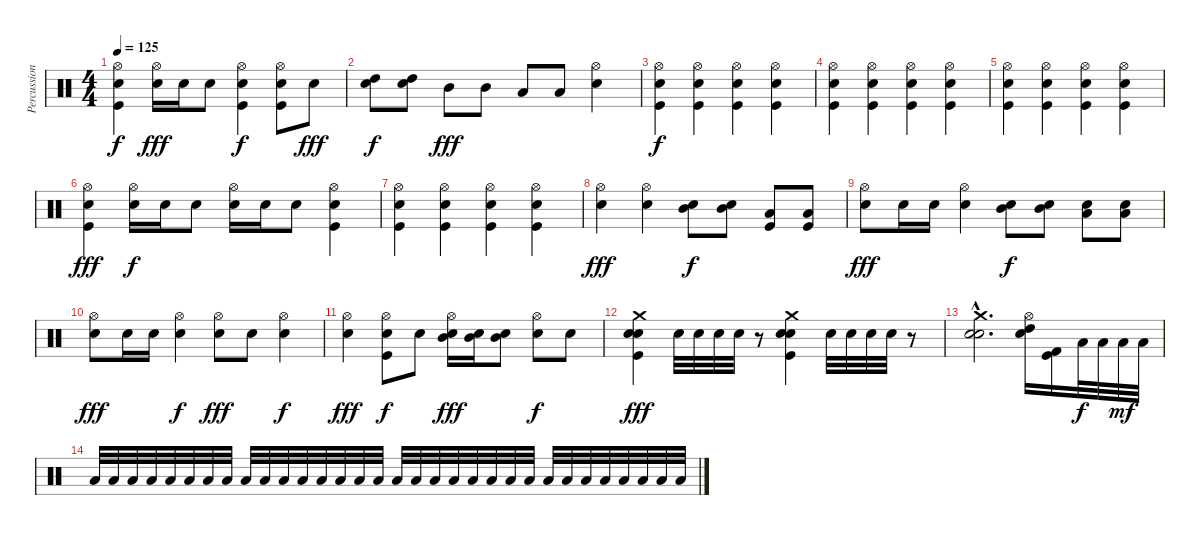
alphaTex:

\track ("Percussion" "Percussion") {instrument percussion}
\staff {score}
\articulation defaults
\ts (4 4)
\tempo 125
\clef neutral
\ks c
("Hi-Hat (open)" "Snare (hit) 2" "Kick (hit)").4{dy f} ("Hi-Hat (open)" "Snare (hit) 2").16{dy fff} "Snare (hit) 2".16 "Snare (hit) 2".8 ("Hi-Hat (open)" "Snare (hit) 2" "Kick (hit)").4{dy f} ("Hi-Hat (open)" "Snare (hit) 2" "Kick (hit)").8 "Electric Snare (hit)".8{dy fff} |
("High Tom (hit)" "Snare (hit) 2").8{dy f} ("High Tom (hit)" "Snare (hit) 2").8 "Mid Tom (hit)".8{dy fff} "Mid Tom (hit)".8 "Low Tom (hit)".8 "Low Tom (hit)".8 ("Hi-Hat (open)" "Electric Snare (hit)").4 |
("Hi-Hat (open)" "Snare (hit) 2" "Kick (hit)").4{dy f} ("Hi-Hat (open)" "Snare (hit) 2" "Kick (hit)").4 ("Hi-Hat (open)" "Snare (hit) 2" "Kick (hit)").4 ("Hi-Hat (open)" "Snare (hit) 2" "Kick (hit)").4 |
("Hi-Hat (open)" "Snare (hit) 2" "Kick (hit)").4 ("Hi-Hat (open)" "Snare (hit) 2" "Kick (hit)").4 ("Hi-Hat (open)" "Snare (hit) 2" "Kick (hit)").4 ("Hi-Hat (open)" "Snare (hit) 2" "Kick (hit)").4 |
("Hi-Hat (open)" "Snare (hit) 2" "Kick (hit)").4 ("Hi-Hat (open)" "Snare (hit) 2" "Kick (hit)").4 ("Hi-Hat (open)" "Snare (hit) 2" "Kick (hit)").4 ("Hi-Hat (open)" "Snare (hit) 2" "Kick (hit)").4 |
("Hi-Hat (open)" "Electric Snare (hit)" "Kick (hit)").4{dy fff} ("Hi-Hat (open)" "Snare (hit) 2").16{dy f} "Snare (hit) 2".16 "Snare (hit) 2".8 ("Hi-Hat (open)" "Snare (hit) 2").16 "Snare (hit) 2".16 "Snare (hit) 2".8 ("Hi-Hat (open)" "Snare (hit) 2" "Kick (hit)").4 |
("Hi-Hat (open)" "Snare (hit) 2" "Kick (hit)").4 ("Hi-Hat (open)" "Snare (hit) 2" "Kick (hit)").4 ("Hi-Hat (open)" "Snare (hit) 2" "Kick (hit)").4 ("Hi-Hat (open)" "Snare (hit) 2" "Kick (hit)").4 |
("Hi-Hat (open)" "Electric Snare (hit)").4{dy fff} ("Hi-Hat (open)" "Electric Snare (hit)").4 ("Mid Tom (hit)" "Snare (hit) 2").8{dy f} ("Mid Tom (hit)" "Snare (hit) 2").8 ("Low Tom (hit)" "Kick (hit)").8 ("Low Tom (hit)" "Kick (hit)").8 |
("Hi-Hat (open)" "Electric Snare (hit)").8{dy fff} "Snare (hit) 2".16 "Snare (hit) 2".16 ("Hi-Hat (open)" "Snare (hit) 2").4 ("Mid Tom (hit)" "Snare (hit) 2").8{dy f} ("Mid Tom (hit)" "Snare (hit) 2").8 ("Low Tom (hit)" "Snare (hit) 2").8 ("Low Tom (hit)" "Snare (hit) 2").8 |
("Hi-Hat (open)" "Electric Snare (hit)").8{dy fff} "Electric Snare (hit)".16 "Electric Snare (hit)".16 ("Hi-Hat (open)" "Snare (hit) 2").4{dy f} ("Hi-Hat (open)" "Snare (hit) 2").8{dy fff} "Snare (hit) 2".8 ("Hi-Hat (open)" "Snare (hit) 2").4{dy f} |
("Hi-Hat (open)" "Electric Snare (hit)").4{dy fff} ("Hi-Hat (open)" "Snare (hit) 2" "Kick (hit)").8{dy f} "Snare (hit) 2".8 ("Hi-Hat (open)" "Mid Tom (hit)" "Electric Snare (hit)").16{dy fff} ("Mid Tom (hit)" "Electric Snare (hit)").16 ("Mid Tom (hit)" "Electric Snare (hit)").8 ("Hi-Hat (open)" "Snare (hit) 2").8{dy f} "Snare (hit) 2".8 |
("Crash medium (hit)" "Snare (hit) 2" "Electric Snare (hit)" "Kick (hit)").4{dy fff} "Electric Snare (hit)".32 "Electric Snare (hit)".32 "Electric Snare (hit)".32 "Electric Snare (hit)".32 r.8 ("Crash medium (hit)" "Snare (hit) 2" "Electric Snare (hit)" "Kick (hit)").4 "Electric Snare (hit)".32 "Electric Snare (hit)".32 "Electric Snare (hit)".32 "Electric Snare (hit)".32 r.8 |
("Crash medium (hit)"{hac} "Snare (hit) 2"{hac} "Electric Snare (hit)"{hac}).2{d} ("Hi-Hat (open)" "Electric Snare (hit)" "High Tom (hit)").16 ("Kick (hit)" "Kick (hit) 2").16 "Low Tom (hit)".32{dy f volume 0} "Low Tom (hit)".32 "Low Tom (hit)".32{dy mf} "Low Tom (hit)".32 |
"Low Tom (hit)".32 "Low Tom (hit)".32 "Low Tom (hit)".32 "Low Tom (hit)".32 "Low Tom (hit)".32 "Low Tom (hit)".32 "Low Tom (hit)".32 "Low Tom (hit)".32 "Low Tom (hit)".32 "Low Tom (hit)".32 "Low Tom (hit)".32 "Low Tom (hit)".32 "Low Tom (hit)".32 "Low Tom (hit)".32 "Low Tom (hit)".32 "Low Tom (hit)".32 "Low Tom (hit)".32 "Low Tom (hit)".32 "Low Tom (hit)".32 "Low Tom (hit)".32 "Low Tom (hit)".32 "Low Tom (hit)".32 "Low Tom (hit)".32 "Low Tom (hit)".32 "Low Tom (hit)".32 "Low Tom (hit)".32 "Low Tom (hit)".32 "Low Tom (hit)".32 "Low Tom (hit)".32 "Low Tom (hit)".32 "Low Tom (hit)".32 "Low Tom (hit)".32
